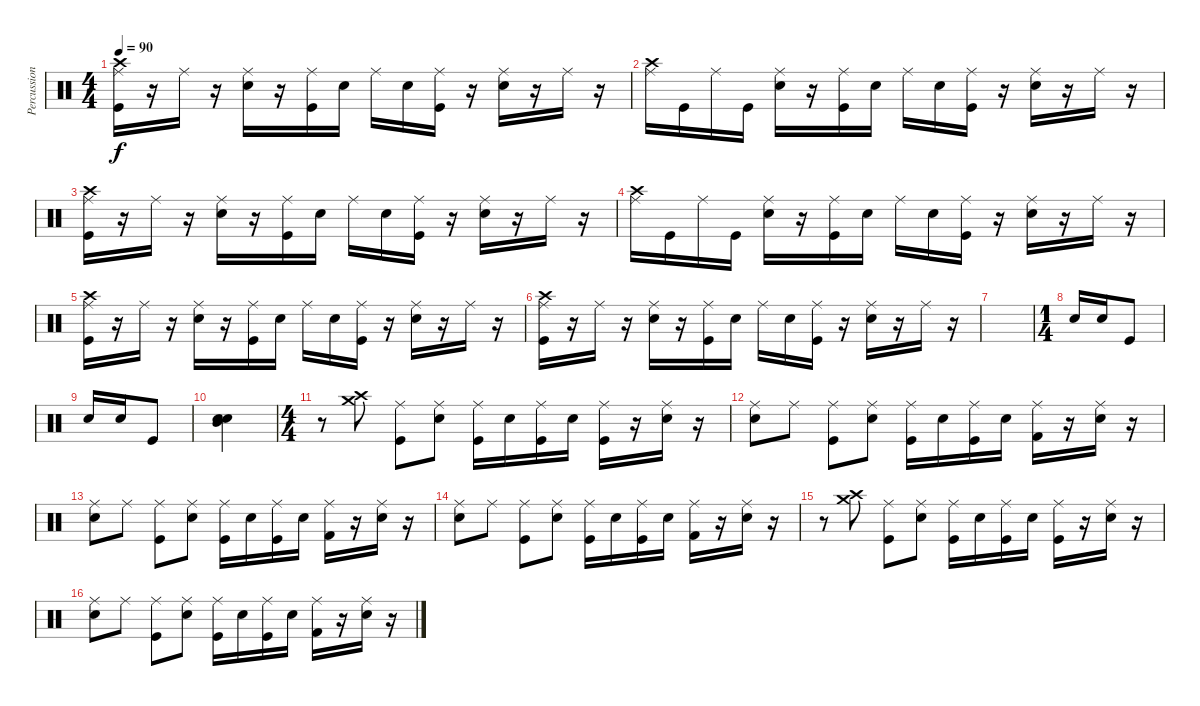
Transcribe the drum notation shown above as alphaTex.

\track ("Percussions" "Percussion") {instrument percussion}
\staff {score}
\articulation defaults
\ts (4 4)
\tempo 90
\clef neutral
\ks c
("Ride (middle)" "Crash high (hit)" "Kick (hit)").16{dy f} r.16 "Ride (middle)".16 r.16 ("Ride (middle)" "Electric Snare (hit)").16 r.16 ("Ride (middle)" "Kick (hit)").16 "Electric Snare (hit)".16 "Ride (middle)".16 "Electric Snare (hit)".16 ("Ride (middle)" "Kick (hit)").16 r.16 ("Ride (middle)" "Electric Snare (hit)").16 r.16 "Ride (middle)".16 r.16 |
("Ride (middle)" "Crash high (hit)").16 "Kick (hit)".16 "Ride (middle)".16 "Kick (hit)".16 ("Ride (middle)" "Electric Snare (hit)").16 r.16 ("Ride (middle)" "Kick (hit)").16 "Electric Snare (hit)".16 "Ride (middle)".16 "Electric Snare (hit)".16 ("Ride (middle)" "Kick (hit)").16 r.16 ("Ride (middle)" "Electric Snare (hit)").16 r.16 "Ride (middle)".16 r.16 |
("Ride (middle)" "Crash high (hit)" "Kick (hit)").16 r.16 "Ride (middle)".16 r.16 ("Ride (middle)" "Electric Snare (hit)").16 r.16 ("Ride (middle)" "Kick (hit)").16 "Electric Snare (hit)".16 "Ride (middle)".16 "Electric Snare (hit)".16 ("Ride (middle)" "Kick (hit)").16 r.16 ("Ride (middle)" "Electric Snare (hit)").16 r.16 "Ride (middle)".16 r.16 |
("Ride (middle)" "Crash high (hit)").16 "Kick (hit)".16 "Ride (middle)".16 "Kick (hit)".16 ("Ride (middle)" "Electric Snare (hit)").16 r.16 ("Ride (middle)" "Kick (hit)").16 "Electric Snare (hit)".16 "Ride (middle)".16 "Electric Snare (hit)".16 ("Ride (middle)" "Kick (hit)").16 r.16 ("Ride (middle)" "Electric Snare (hit)").16 r.16 "Ride (middle)".16 r.16 |
("Ride (middle)" "Crash high (hit)" "Kick (hit)").16 r.16 "Ride (middle)".16 r.16 ("Ride (middle)" "Electric Snare (hit)").16 r.16 ("Ride (middle)" "Kick (hit)").16 "Electric Snare (hit)".16 "Ride (middle)".16 "Electric Snare (hit)".16 ("Ride (middle)" "Kick (hit)").16 r.16 ("Ride (middle)" "Electric Snare (hit)").16 r.16 "Ride (middle)".16 r.16 |
("Ride (middle)" "Crash high (hit)" "Kick (hit)").16 r.16 "Ride (middle)".16 r.16 ("Ride (middle)" "Electric Snare (hit)").16 r.16 ("Ride (middle)" "Kick (hit)").16 "Electric Snare (hit)".16 "Ride (middle)".16 "Electric Snare (hit)".16 ("Ride (middle)" "Kick (hit)").16 r.16 ("Ride (middle)" "Electric Snare (hit)").16 r.16 "Ride (middle)".16 r.16 |
|
\ts (1 4)
"Electric Snare (hit)".16 "Electric Snare (hit)".16 "Kick (hit)".8 |
"Electric Snare (hit)".16 "Electric Snare (hit)".16 "Kick (hit)".8 |
("Mid Tom (hit)" "Electric Snare (hit)" "Electric Snare (hit)").4 |
\ts (4 4)
r.8{volume 14} ("Crash medium (hit)" "Crash high (hit)").8 ("Ride (middle)" "Kick (hit)").8 ("Ride (middle)" "Electric Snare (hit)").8 ("Ride (middle)" "Kick (hit)").16 "Electric Snare (hit)".16 ("Ride (middle)" "Kick (hit)").16 "Electric Snare (hit)".16 ("Ride (middle)" "Kick (hit)").16 r.16 ("Ride (middle)" "Electric Snare (hit)").16 r.16 |
("Ride (middle)" "Electric Snare (hit)"{tr (40 16)}).8 "Ride (middle)".8 ("Ride (middle)" "Kick (hit)").8 ("Ride (middle)" "Electric Snare (hit)").8 ("Ride (middle)" "Kick (hit)").16 "Electric Snare (hit)".16 ("Ride (middle)" "Kick (hit)").16 "Electric Snare (hit)".16 ("Ride (middle)" "Kick (hit) 2").16 r.16 ("Ride (middle)" "Electric Snare (hit)").16 r.16 |
("Ride (middle)" "Electric Snare (hit)"{tr (40 16)}).8 "Ride (middle)".8 ("Ride (middle)" "Kick (hit)").8 ("Ride (middle)" "Electric Snare (hit)").8 ("Ride (middle)" "Kick (hit)").16 "Electric Snare (hit)".16 ("Ride (middle)" "Kick (hit)").16 "Electric Snare (hit)".16 ("Ride (middle)" "Kick (hit) 2").16 r.16 ("Ride (middle)" "Electric Snare (hit)").16 r.16 |
("Ride (middle)" "Electric Snare (hit)"{tr (40 16)}).8 "Ride (middle)".8 ("Ride (middle)" "Kick (hit)").8 ("Ride (middle)" "Electric Snare (hit)").8 ("Ride (middle)" "Kick (hit)").16 "Electric Snare (hit)".16 ("Ride (middle)" "Kick (hit)").16 "Electric Snare (hit)".16 ("Ride (middle)" "Kick (hit) 2").16 r.16 ("Ride (middle)" "Electric Snare (hit)").16 r.16 |
r.8{volume 14} ("Crash medium (hit)" "Crash high (hit)").8 ("Ride (middle)" "Kick (hit)").8 ("Ride (middle)" "Electric Snare (hit)").8 ("Ride (middle)" "Kick (hit)").16 "Electric Snare (hit)".16 ("Ride (middle)" "Kick (hit)").16 "Electric Snare (hit)".16 ("Ride (middle)" "Kick (hit)").16 r.16 ("Ride (middle)" "Electric Snare (hit)").16 r.16 |
("Ride (middle)" "Electric Snare (hit)"{tr (40 16)}).8 "Ride (middle)".8 ("Ride (middle)" "Kick (hit)").8 ("Ride (middle)" "Electric Snare (hit)").8 ("Ride (middle)" "Kick (hit)").16 "Electric Snare (hit)".16 ("Ride (middle)" "Kick (hit)").16 "Electric Snare (hit)".16 ("Ride (middle)" "Kick (hit) 2").16 r.16 ("Ride (middle)" "Electric Snare (hit)").16 r.16
